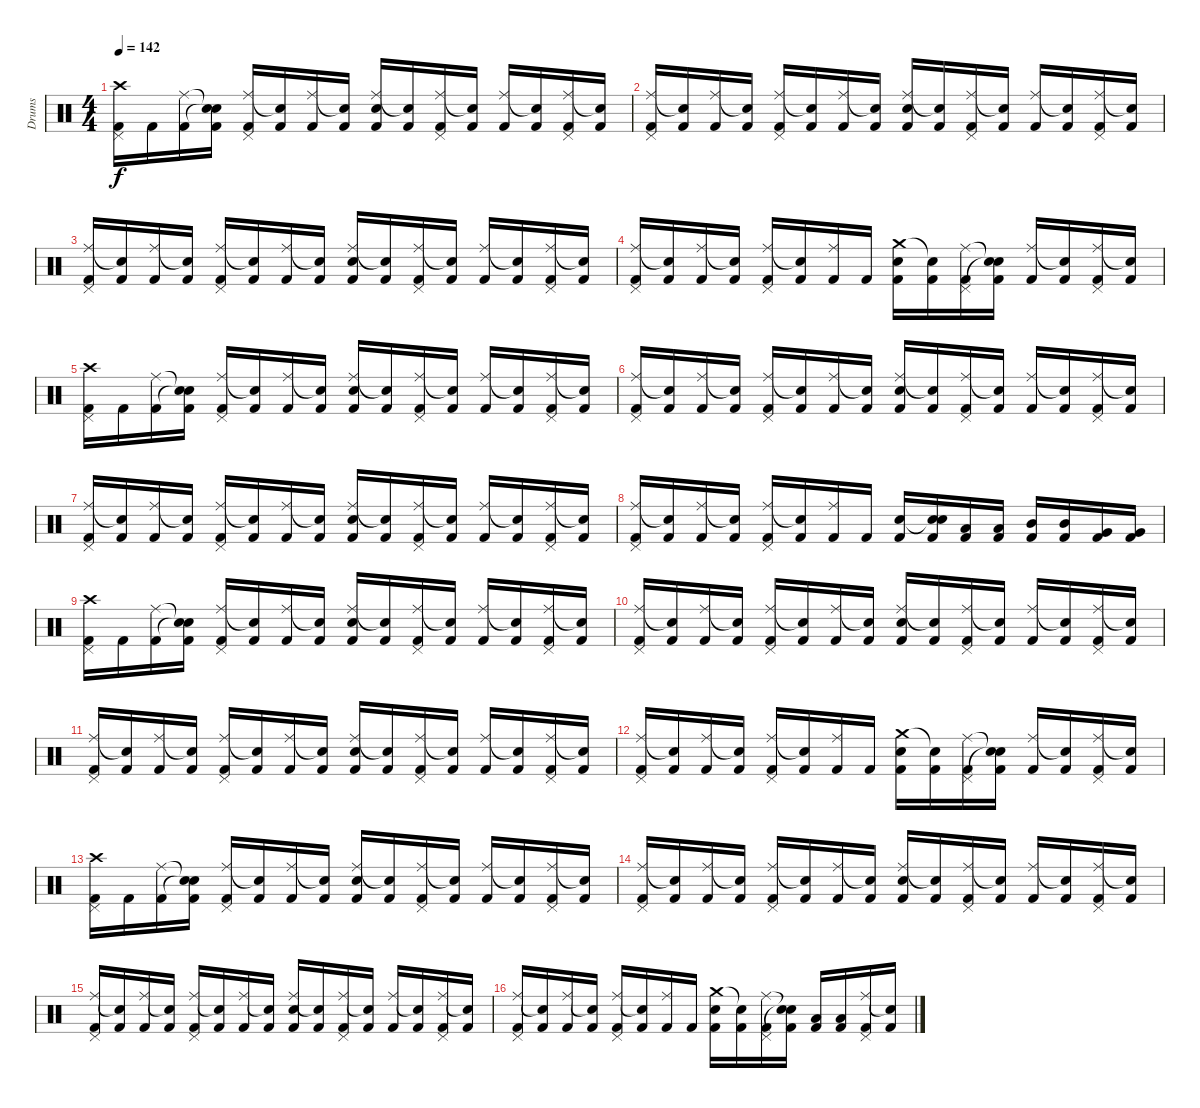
\track ("Drums" "Drums") {instrument percussion}
\staff {score}
\articulation defaults
\ts (4 4)
\tempo 142
\clef neutral
\ks c
("Crash high (hit)" "Pedal Hi-Hat (hit)" "Kick (hit) 2").16{dy f} "Kick (hit) 2".16 ("Ride (middle)" "Kick (hit) 2").16 ("Snare (hit)"{t} "Snare (hit)"{t} "Kick (hit) 2").16 ("Ride (middle)" "Pedal Hi-Hat (hit)" "Kick (hit) 2").16 ("Snare (hit)"{t} "Kick (hit) 2").16 ("Ride (middle)" "Kick (hit) 2").16 ("Snare (hit)"{t} "Kick (hit) 2").16 ("Ride (middle)" "Snare (hit) 2" "Kick (hit) 2").16 ("Snare (hit)"{t} "Kick (hit) 2").16 ("Ride (middle)" "Pedal Hi-Hat (hit)" "Kick (hit) 2").16 ("Snare (hit)"{t} "Kick (hit) 2").16 ("Ride (middle)" "Kick (hit) 2").16 ("Snare (hit)"{t} "Kick (hit) 2").16 ("Ride (middle)" "Pedal Hi-Hat (hit)" "Kick (hit) 2").16 ("Snare (hit)"{t} "Kick (hit) 2").16 |
("Ride (middle)" "Pedal Hi-Hat (hit)" "Kick (hit) 2").16 ("Snare (hit)"{t} "Kick (hit) 2").16 ("Ride (middle)" "Kick (hit) 2").16 ("Snare (hit)"{t} "Kick (hit) 2").16 ("Ride (middle)" "Pedal Hi-Hat (hit)" "Kick (hit) 2").16 ("Snare (hit)"{t} "Kick (hit) 2").16 ("Ride (middle)" "Kick (hit) 2").16 ("Snare (hit)"{t} "Kick (hit) 2").16 ("Ride (middle)" "Snare (hit) 2" "Kick (hit) 2").16 ("Snare (hit)"{t} "Kick (hit) 2").16 ("Ride (middle)" "Pedal Hi-Hat (hit)" "Kick (hit) 2").16 ("Snare (hit)"{t} "Kick (hit) 2").16 ("Ride (middle)" "Kick (hit) 2").16 ("Snare (hit)"{t} "Kick (hit) 2").16 ("Ride (middle)" "Pedal Hi-Hat (hit)" "Kick (hit) 2").16 ("Snare (hit)"{t} "Kick (hit) 2").16 |
("Ride (middle)" "Pedal Hi-Hat (hit)" "Kick (hit) 2").16 ("Snare (hit)"{t} "Kick (hit) 2").16 ("Ride (middle)" "Kick (hit) 2").16 ("Snare (hit)"{t} "Kick (hit) 2").16 ("Ride (middle)" "Pedal Hi-Hat (hit)" "Kick (hit) 2").16 ("Snare (hit)"{t} "Kick (hit) 2").16 ("Ride (middle)" "Kick (hit) 2").16 ("Snare (hit)"{t} "Kick (hit) 2").16 ("Ride (middle)" "Snare (hit) 2" "Kick (hit) 2").16 ("Snare (hit)"{t} "Kick (hit) 2").16 ("Ride (middle)" "Pedal Hi-Hat (hit)" "Kick (hit) 2").16 ("Snare (hit)"{t} "Kick (hit) 2").16 ("Ride (middle)" "Kick (hit) 2").16 ("Snare (hit)"{t} "Kick (hit) 2").16 ("Ride (middle)" "Pedal Hi-Hat (hit)" "Kick (hit) 2").16 ("Snare (hit)"{t} "Kick (hit) 2").16 |
("Ride (middle)" "Pedal Hi-Hat (hit)" "Kick (hit) 2").16 ("Snare (hit)"{t} "Kick (hit) 2").16 ("Ride (middle)" "Kick (hit) 2").16 ("Snare (hit)"{t} "Kick (hit) 2").16 ("Ride (middle)" "Pedal Hi-Hat (hit)" "Kick (hit) 2").16 ("Snare (hit)"{t} "Kick (hit) 2").16 ("Ride (middle)" "Kick (hit) 2").16 "Kick (hit) 2".16 ("Crash medium (hit)" "Snare (hit) 2" "Kick (hit) 2").16 ("Snare (hit)"{t} "Kick (hit) 2").16 ("Ride (middle)" "Pedal Hi-Hat (hit)" "Kick (hit) 2").16 ("Snare (hit)"{t} "Snare (hit)"{t} "Kick (hit) 2").16 ("Ride (middle)" "Kick (hit) 2").16 ("Snare (hit)"{t} "Kick (hit) 2").16 ("Ride (middle)" "Pedal Hi-Hat (hit)" "Kick (hit) 2").16 ("Snare (hit)"{t} "Kick (hit) 2").16 |
("Crash high (hit)" "Pedal Hi-Hat (hit)" "Kick (hit) 2").16 "Kick (hit) 2".16 ("Ride (middle)" "Kick (hit) 2").16 ("Snare (hit)"{t} "Snare (hit)"{t} "Kick (hit) 2").16 ("Ride (middle)" "Pedal Hi-Hat (hit)" "Kick (hit) 2").16 ("Snare (hit)"{t} "Kick (hit) 2").16 ("Ride (middle)" "Kick (hit) 2").16 ("Snare (hit)"{t} "Kick (hit) 2").16 ("Ride (middle)" "Snare (hit) 2" "Kick (hit) 2").16 ("Snare (hit)"{t} "Kick (hit) 2").16 ("Ride (middle)" "Pedal Hi-Hat (hit)" "Kick (hit) 2").16 ("Snare (hit)"{t} "Kick (hit) 2").16 ("Ride (middle)" "Kick (hit) 2").16 ("Snare (hit)"{t} "Kick (hit) 2").16 ("Ride (middle)" "Pedal Hi-Hat (hit)" "Kick (hit) 2").16 ("Snare (hit)"{t} "Kick (hit) 2").16 |
("Ride (middle)" "Pedal Hi-Hat (hit)" "Kick (hit) 2").16 ("Snare (hit)"{t} "Kick (hit) 2").16 ("Ride (middle)" "Kick (hit) 2").16 ("Snare (hit)"{t} "Kick (hit) 2").16 ("Ride (middle)" "Pedal Hi-Hat (hit)" "Kick (hit) 2").16 ("Snare (hit)"{t} "Kick (hit) 2").16 ("Ride (middle)" "Kick (hit) 2").16 ("Snare (hit)"{t} "Kick (hit) 2").16 ("Ride (middle)" "Snare (hit) 2" "Kick (hit) 2").16 ("Snare (hit)"{t} "Kick (hit) 2").16 ("Ride (middle)" "Pedal Hi-Hat (hit)" "Kick (hit) 2").16 ("Snare (hit)"{t} "Kick (hit) 2").16 ("Ride (middle)" "Kick (hit) 2").16 ("Snare (hit)"{t} "Kick (hit) 2").16 ("Ride (middle)" "Pedal Hi-Hat (hit)" "Kick (hit) 2").16 ("Snare (hit)"{t} "Kick (hit) 2").16 |
("Ride (middle)" "Pedal Hi-Hat (hit)" "Kick (hit) 2").16 ("Snare (hit)"{t} "Kick (hit) 2").16 ("Ride (middle)" "Kick (hit) 2").16 ("Snare (hit)"{t} "Kick (hit) 2").16 ("Ride (middle)" "Pedal Hi-Hat (hit)" "Kick (hit) 2").16 ("Snare (hit)"{t} "Kick (hit) 2").16 ("Ride (middle)" "Kick (hit) 2").16 ("Snare (hit)"{t} "Kick (hit) 2").16 ("Ride (middle)" "Snare (hit) 2" "Kick (hit) 2").16 ("Snare (hit)"{t} "Kick (hit) 2").16 ("Ride (middle)" "Pedal Hi-Hat (hit)" "Kick (hit) 2").16 ("Snare (hit)"{t} "Kick (hit) 2").16 ("Ride (middle)" "Kick (hit) 2").16 ("Snare (hit)"{t} "Kick (hit) 2").16 ("Ride (middle)" "Pedal Hi-Hat (hit)" "Kick (hit) 2").16 ("Snare (hit)"{t} "Kick (hit) 2").16 |
("Ride (middle)" "Pedal Hi-Hat (hit)" "Kick (hit) 2").16 ("Snare (hit)"{t} "Kick (hit) 2").16 ("Ride (middle)" "Kick (hit) 2").16 ("Snare (hit)"{t} "Kick (hit) 2").16 ("Ride (middle)" "Pedal Hi-Hat (hit)" "Kick (hit) 2").16 ("Snare (hit)"{t} "Kick (hit) 2").16 ("Ride (middle)" "Kick (hit) 2").16 "Kick (hit) 2".16 ("Snare (hit) 2" "Kick (hit) 2").16 ("Snare (hit)"{t} "Snare (hit) 2" "Kick (hit) 2").16 ("Low Tom (hit)" "Kick (hit) 2").16 ("Low Tom (hit)" "Kick (hit) 2").16 ("Mid Tom (hit)" "Kick (hit) 2").16 ("Mid Tom (hit)" "Kick (hit) 2").16 ("Very Low Tom (hit)" "Kick (hit) 2").16 ("Very Low Tom (hit)" "Kick (hit) 2").16 |
("Crash high (hit)" "Pedal Hi-Hat (hit)" "Kick (hit) 2").16 "Kick (hit) 2".16 ("Ride (middle)" "Kick (hit) 2").16 ("Snare (hit)"{t} "Snare (hit)"{t} "Kick (hit) 2").16 ("Ride (middle)" "Pedal Hi-Hat (hit)" "Kick (hit) 2").16 ("Snare (hit)"{t} "Kick (hit) 2").16 ("Ride (middle)" "Kick (hit) 2").16 ("Snare (hit)"{t} "Kick (hit) 2").16 ("Ride (middle)" "Snare (hit) 2" "Kick (hit) 2").16 ("Snare (hit)"{t} "Kick (hit) 2").16 ("Ride (middle)" "Pedal Hi-Hat (hit)" "Kick (hit) 2").16 ("Snare (hit)"{t} "Kick (hit) 2").16 ("Ride (middle)" "Kick (hit) 2").16 ("Snare (hit)"{t} "Kick (hit) 2").16 ("Ride (middle)" "Pedal Hi-Hat (hit)" "Kick (hit) 2").16 ("Snare (hit)"{t} "Kick (hit) 2").16 |
("Ride (middle)" "Pedal Hi-Hat (hit)" "Kick (hit) 2").16 ("Snare (hit)"{t} "Kick (hit) 2").16 ("Ride (middle)" "Kick (hit) 2").16 ("Snare (hit)"{t} "Kick (hit) 2").16 ("Ride (middle)" "Pedal Hi-Hat (hit)" "Kick (hit) 2").16 ("Snare (hit)"{t} "Kick (hit) 2").16 ("Ride (middle)" "Kick (hit) 2").16 ("Snare (hit)"{t} "Kick (hit) 2").16 ("Ride (middle)" "Snare (hit) 2" "Kick (hit) 2").16 ("Snare (hit)"{t} "Kick (hit) 2").16 ("Ride (middle)" "Pedal Hi-Hat (hit)" "Kick (hit) 2").16 ("Snare (hit)"{t} "Kick (hit) 2").16 ("Ride (middle)" "Kick (hit) 2").16 ("Snare (hit)"{t} "Kick (hit) 2").16 ("Ride (middle)" "Pedal Hi-Hat (hit)" "Kick (hit) 2").16 ("Snare (hit)"{t} "Kick (hit) 2").16 |
("Ride (middle)" "Pedal Hi-Hat (hit)" "Kick (hit) 2").16 ("Snare (hit)"{t} "Kick (hit) 2").16 ("Ride (middle)" "Kick (hit) 2").16 ("Snare (hit)"{t} "Kick (hit) 2").16 ("Ride (middle)" "Pedal Hi-Hat (hit)" "Kick (hit) 2").16 ("Snare (hit)"{t} "Kick (hit) 2").16 ("Ride (middle)" "Kick (hit) 2").16 ("Snare (hit)"{t} "Kick (hit) 2").16 ("Ride (middle)" "Snare (hit) 2" "Kick (hit) 2").16 ("Snare (hit)"{t} "Kick (hit) 2").16 ("Ride (middle)" "Pedal Hi-Hat (hit)" "Kick (hit) 2").16 ("Snare (hit)"{t} "Kick (hit) 2").16 ("Ride (middle)" "Kick (hit) 2").16 ("Snare (hit)"{t} "Kick (hit) 2").16 ("Ride (middle)" "Pedal Hi-Hat (hit)" "Kick (hit) 2").16 ("Snare (hit)"{t} "Kick (hit) 2").16 |
("Ride (middle)" "Pedal Hi-Hat (hit)" "Kick (hit) 2").16 ("Snare (hit)"{t} "Kick (hit) 2").16 ("Ride (middle)" "Kick (hit) 2").16 ("Snare (hit)"{t} "Kick (hit) 2").16 ("Ride (middle)" "Pedal Hi-Hat (hit)" "Kick (hit) 2").16 ("Snare (hit)"{t} "Kick (hit) 2").16 ("Ride (middle)" "Kick (hit) 2").16 "Kick (hit) 2".16 ("Crash medium (hit)" "Snare (hit) 2" "Kick (hit) 2").16 ("Snare (hit)"{t} "Kick (hit) 2").16 ("Ride (middle)" "Pedal Hi-Hat (hit)" "Kick (hit) 2").16 ("Snare (hit)"{t} "Snare (hit)"{t} "Kick (hit) 2").16 ("Ride (middle)" "Kick (hit) 2").16 ("Snare (hit)"{t} "Kick (hit) 2").16 ("Ride (middle)" "Pedal Hi-Hat (hit)" "Kick (hit) 2").16 ("Snare (hit)"{t} "Kick (hit) 2").16 |
("Crash high (hit)" "Pedal Hi-Hat (hit)" "Kick (hit) 2").16 "Kick (hit) 2".16 ("Ride (middle)" "Kick (hit) 2").16 ("Snare (hit)"{t} "Snare (hit)"{t} "Kick (hit) 2").16 ("Ride (middle)" "Pedal Hi-Hat (hit)" "Kick (hit) 2").16 ("Snare (hit)"{t} "Kick (hit) 2").16 ("Ride (middle)" "Kick (hit) 2").16 ("Snare (hit)"{t} "Kick (hit) 2").16 ("Ride (middle)" "Snare (hit) 2" "Kick (hit) 2").16 ("Snare (hit)"{t} "Kick (hit) 2").16 ("Ride (middle)" "Pedal Hi-Hat (hit)" "Kick (hit) 2").16 ("Snare (hit)"{t} "Kick (hit) 2").16 ("Ride (middle)" "Kick (hit) 2").16 ("Snare (hit)"{t} "Kick (hit) 2").16 ("Ride (middle)" "Pedal Hi-Hat (hit)" "Kick (hit) 2").16 ("Snare (hit)"{t} "Kick (hit) 2").16 |
("Ride (middle)" "Pedal Hi-Hat (hit)" "Kick (hit) 2").16 ("Snare (hit)"{t} "Kick (hit) 2").16 ("Ride (middle)" "Kick (hit) 2").16 ("Snare (hit)"{t} "Kick (hit) 2").16 ("Ride (middle)" "Pedal Hi-Hat (hit)" "Kick (hit) 2").16 ("Snare (hit)"{t} "Kick (hit) 2").16 ("Ride (middle)" "Kick (hit) 2").16 ("Snare (hit)"{t} "Kick (hit) 2").16 ("Ride (middle)" "Snare (hit) 2" "Kick (hit) 2").16 ("Snare (hit)"{t} "Kick (hit) 2").16 ("Ride (middle)" "Pedal Hi-Hat (hit)" "Kick (hit) 2").16 ("Snare (hit)"{t} "Kick (hit) 2").16 ("Ride (middle)" "Kick (hit) 2").16 ("Snare (hit)"{t} "Kick (hit) 2").16 ("Ride (middle)" "Pedal Hi-Hat (hit)" "Kick (hit) 2").16 ("Snare (hit)"{t} "Kick (hit) 2").16 |
("Ride (middle)" "Pedal Hi-Hat (hit)" "Kick (hit) 2").16 ("Snare (hit)"{t} "Kick (hit) 2").16 ("Ride (middle)" "Kick (hit) 2").16 ("Snare (hit)"{t} "Kick (hit) 2").16 ("Ride (middle)" "Pedal Hi-Hat (hit)" "Kick (hit) 2").16 ("Snare (hit)"{t} "Kick (hit) 2").16 ("Ride (middle)" "Kick (hit) 2").16 ("Snare (hit)"{t} "Kick (hit) 2").16 ("Ride (middle)" "Snare (hit) 2" "Kick (hit) 2").16 ("Snare (hit)"{t} "Kick (hit) 2").16 ("Ride (middle)" "Pedal Hi-Hat (hit)" "Kick (hit) 2").16 ("Snare (hit)"{t} "Kick (hit) 2").16 ("Ride (middle)" "Kick (hit) 2").16 ("Snare (hit)"{t} "Kick (hit) 2").16 ("Ride (middle)" "Pedal Hi-Hat (hit)" "Kick (hit) 2").16 ("Snare (hit)"{t} "Kick (hit) 2").16 |
("Ride (middle)" "Pedal Hi-Hat (hit)" "Kick (hit) 2").16 ("Snare (hit)"{t} "Kick (hit) 2").16 ("Ride (middle)" "Kick (hit) 2").16 ("Snare (hit)"{t} "Kick (hit) 2").16 ("Ride (middle)" "Pedal Hi-Hat (hit)" "Kick (hit) 2").16 ("Snare (hit)"{t} "Kick (hit) 2").16 ("Ride (middle)" "Kick (hit) 2").16 "Kick (hit) 2".16 ("Crash medium (hit)" "Snare (hit) 2" "Kick (hit) 2").16 ("Snare (hit)"{t} "Kick (hit) 2").16 ("Ride (middle)" "Pedal Hi-Hat (hit)" "Kick (hit) 2").16 ("Snare (hit)"{t} "Snare (hit)"{t} "Kick (hit) 2").16 ("Low Tom (hit)" "Kick (hit) 2").16 ("Low Tom (hit)" "Kick (hit) 2").16 ("Ride (middle)" "Pedal Hi-Hat (hit)" "Kick (hit) 2").16 ("Snare (hit)"{t} "Kick (hit) 2").16
